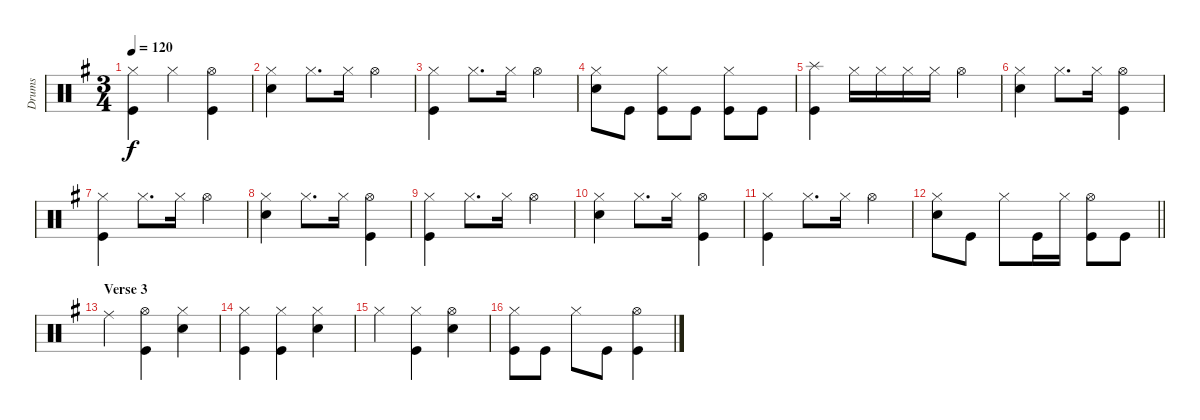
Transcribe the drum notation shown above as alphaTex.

\track ("Drums" "Drums") {instrument percussion}
\staff {score}
\articulation defaults
\ts (3 4)
\tempo 120
\clef neutral
\ks g
("Hi-Hat (closed)" "Kick (hit)").4{dy f} "Hi-Hat (closed)".4 ("Hi-Hat (open)" "Kick (hit)").4 |
("Hi-Hat (closed)" "Snare (hit) 2").4 "Hi-Hat (closed)".8{d} "Hi-Hat (closed)".16 "Hi-Hat (open)".4 |
("Hi-Hat (closed)" "Kick (hit)").4 "Hi-Hat (closed)".8{d} "Hi-Hat (closed)".16 "Hi-Hat (open)".4 |
("Hi-Hat (closed)" "Snare (hit) 2").8 "Kick (hit)".8 ("Hi-Hat (closed)" "Kick (hit)").8 "Kick (hit)".8 ("Hi-Hat (closed)" "Kick (hit)").8 "Kick (hit)".8 |
("Splash (hit)" "Kick (hit)").4 "Hi-Hat (closed)".16 "Hi-Hat (closed)".16 "Hi-Hat (closed)".16 "Hi-Hat (closed)".16 "Hi-Hat (open)".4 |
("Hi-Hat (closed)" "Snare (hit) 2").4 "Hi-Hat (closed)".8{d} "Hi-Hat (closed)".16 ("Hi-Hat (open)" "Kick (hit)").4 |
("Hi-Hat (closed)" "Kick (hit)").4 "Hi-Hat (closed)".8{d} "Hi-Hat (closed)".16 "Hi-Hat (open)".4 |
("Hi-Hat (closed)" "Snare (hit) 2").4 "Hi-Hat (closed)".8{d} "Hi-Hat (closed)".16 ("Hi-Hat (open)" "Kick (hit)").4 |
("Hi-Hat (closed)" "Kick (hit)").4 "Hi-Hat (closed)".8{d} "Hi-Hat (closed)".16 "Hi-Hat (open)".4 |
("Hi-Hat (closed)" "Snare (hit) 2").4 "Hi-Hat (closed)".8{d} "Hi-Hat (closed)".16 ("Hi-Hat (open)" "Kick (hit)").4 |
("Hi-Hat (closed)" "Kick (hit)").4 "Hi-Hat (closed)".8{d} "Hi-Hat (closed)".16 "Hi-Hat (open)".4 |
\barLineRight lightlight
("Hi-Hat (closed)" "Snare (hit) 2").8 "Kick (hit)".8 "Hi-Hat (closed)".8 "Kick (hit)".16 "Hi-Hat (closed)".16 ("Hi-Hat (open)" "Kick (hit)").8 "Kick (hit)".8 |
\section ("" "Verse 3")
"Ride (middle)".4 ("Hi-Hat (open)" "Kick (hit)").4 ("Hi-Hat (closed)" "Snare (hit) 2").4 |
("Hi-Hat (closed)" "Kick (hit)").4 ("Hi-Hat (closed)" "Kick (hit)").4 ("Hi-Hat (closed)" "Snare (hit) 2").4 |
"Hi-Hat (closed)".4 ("Hi-Hat (closed)" "Kick (hit)").4 ("Hi-Hat (open)" "Snare (hit) 2").4 |
("Hi-Hat (closed)" "Kick (hit)").8 "Kick (hit)".8 "Hi-Hat (closed)".8 "Kick (hit)".8 ("Hi-Hat (open)" "Kick (hit)").4
